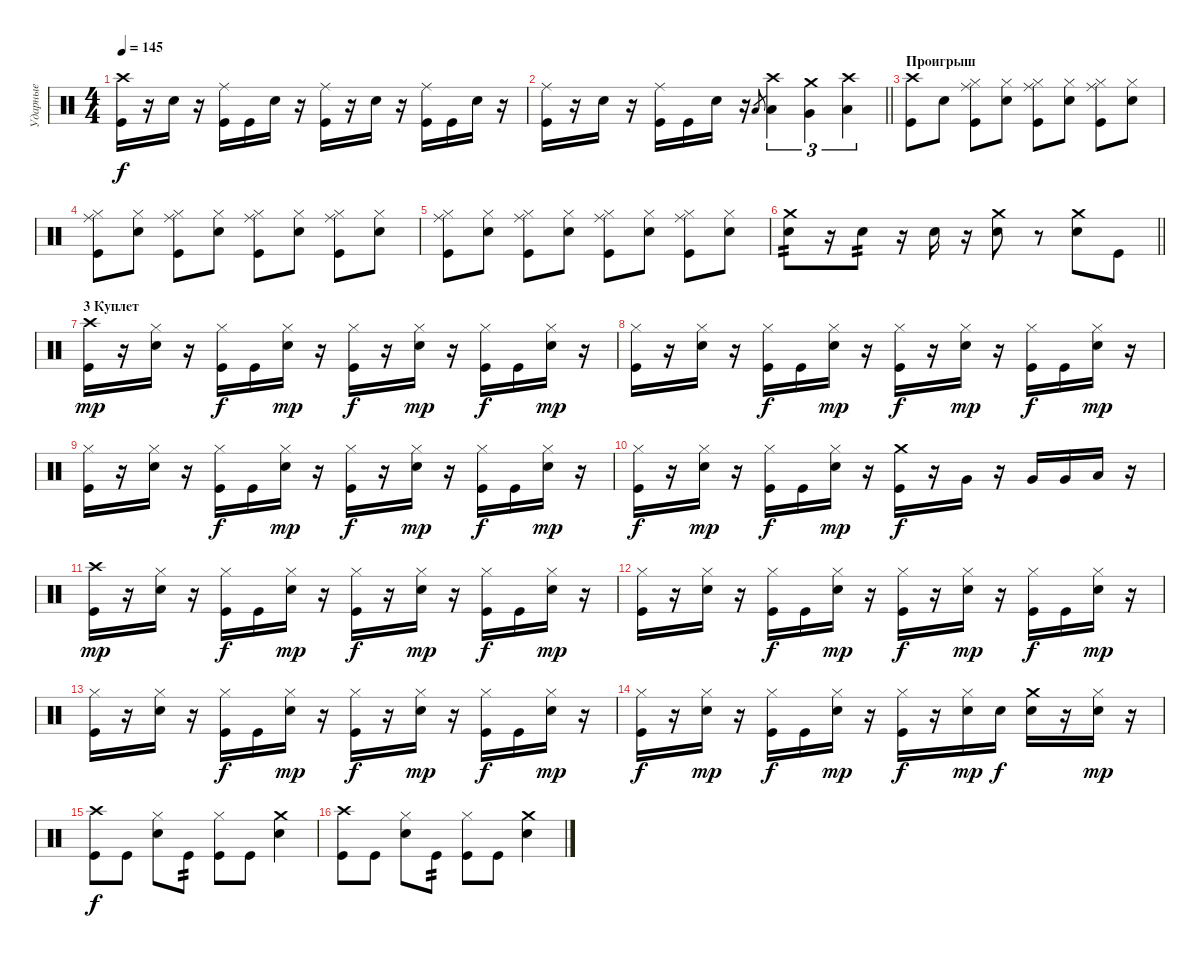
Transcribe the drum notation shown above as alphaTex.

\track ("Ударные" "Ударные") {instrument percussion}
\staff {score}
\articulation defaults
\ts (4 4)
\tempo 145
\clef neutral
\ks c
("Crash high (hit)" "Kick (hit)").16{dy f} r.16 "Snare (hit) 2".16 r.16 ("Ride (middle)" "Kick (hit)").16 "Kick (hit)".16 "Snare (hit) 2".16 r.16 ("Ride (middle)" "Kick (hit)").16 r.16 "Snare (hit) 2".16 r.16 ("Ride (middle)" "Kick (hit)").16 "Kick (hit)".16 "Snare (hit) 2".16 r.16 |
\barLineRight lightlight
("Ride (middle)" "Kick (hit)").16 r.16 "Snare (hit) 2".16 r.16 ("Ride (middle)" "Kick (hit)").16 "Kick (hit)".16 "Snare (hit) 2".16 r.16 "Low Tom (hit)".8{gr} ("Crash high (hit)" "Low Tom (hit)").4{tu (3 2)} ("Crash medium (hit)" "Very Low Tom (hit)").4{tu (3 2)} ("Crash high (hit)" "Low Floor Tom (hit)").4{tu (3 2)} |
\section ("" "Проигрыш")
("Crash high (hit)" "Kick (hit)").8 "Snare (hit) 2".8 ("Hi-Hat (closed)" "Ride (middle)" "Kick (hit)").8 ("Hi-Hat (closed)" "Snare (hit) 2").8 ("Hi-Hat (closed)" "Ride (middle)" "Kick (hit)").8 ("Hi-Hat (closed)" "Snare (hit) 2").8 ("Hi-Hat (closed)" "Ride (middle)" "Kick (hit)").8 ("Hi-Hat (closed)" "Snare (hit) 2").8 |
("Hi-Hat (closed)" "Ride (middle)" "Kick (hit)").8 ("Hi-Hat (closed)" "Snare (hit) 2").8 ("Hi-Hat (closed)" "Ride (middle)" "Kick (hit)").8 ("Hi-Hat (closed)" "Snare (hit) 2").8 ("Hi-Hat (closed)" "Ride (middle)" "Kick (hit)").8 ("Hi-Hat (closed)" "Snare (hit) 2").8 ("Hi-Hat (closed)" "Ride (middle)" "Kick (hit)").8 ("Hi-Hat (closed)" "Snare (hit) 2").8 |
("Hi-Hat (closed)" "Ride (middle)" "Kick (hit)").8 ("Hi-Hat (closed)" "Snare (hit) 2").8 ("Hi-Hat (closed)" "Ride (middle)" "Kick (hit)").8 ("Hi-Hat (closed)" "Snare (hit) 2").8 ("Hi-Hat (closed)" "Ride (middle)" "Kick (hit)").8 ("Hi-Hat (closed)" "Snare (hit) 2").8 ("Hi-Hat (closed)" "Ride (middle)" "Kick (hit)").8 ("Hi-Hat (closed)" "Snare (hit) 2").8 |
\barLineRight lightlight
("Crash medium (hit)" "Snare (hit) 2").8{tp 2} r.16 "Snare (hit) 2".8{tp 2} r.16 "Snare (hit) 2".16 r.16 ("Crash medium (hit)" "Snare (hit) 2").8 r.8 ("Crash medium (hit)" "Snare (hit) 2").8 "Kick (hit)".8 |
\section ("" "3 Куплет")
("Crash high (hit)" "Kick (hit)").16{dy mp} r.16 ("Hi-Hat (closed)" "Snare (hit) 2").16 r.16 ("Hi-Hat (closed)" "Kick (hit)").16{dy f} "Kick (hit)".16 ("Hi-Hat (closed)" "Snare (hit) 2").16{dy mp} r.16 ("Hi-Hat (closed)" "Kick (hit)").16{dy f} r.16 ("Hi-Hat (closed)" "Snare (hit) 2").16{dy mp} r.16 ("Hi-Hat (closed)" "Kick (hit)").16{dy f} "Kick (hit)".16 ("Hi-Hat (closed)" "Snare (hit) 2").16{dy mp} r.16 |
("Hi-Hat (closed)" "Kick (hit)").16 r.16 ("Hi-Hat (closed)" "Snare (hit) 2").16 r.16 ("Hi-Hat (closed)" "Kick (hit)").16{dy f} "Kick (hit)".16 ("Hi-Hat (closed)" "Snare (hit) 2").16{dy mp} r.16 ("Hi-Hat (closed)" "Kick (hit)").16{dy f} r.16 ("Hi-Hat (closed)" "Snare (hit) 2").16{dy mp} r.16 ("Hi-Hat (closed)" "Kick (hit)").16{dy f} "Kick (hit)".16 ("Hi-Hat (closed)" "Snare (hit) 2").16{dy mp} r.16 |
("Hi-Hat (closed)" "Kick (hit)").16 r.16 ("Hi-Hat (closed)" "Snare (hit) 2").16 r.16 ("Hi-Hat (closed)" "Kick (hit)").16{dy f} "Kick (hit)".16 ("Hi-Hat (closed)" "Snare (hit) 2").16{dy mp} r.16 ("Hi-Hat (closed)" "Kick (hit)").16{dy f} r.16 ("Hi-Hat (closed)" "Snare (hit) 2").16{dy mp} r.16 ("Hi-Hat (closed)" "Kick (hit)").16{dy f} "Kick (hit)".16 ("Hi-Hat (closed)" "Snare (hit) 2").16{dy mp} r.16 |
("Hi-Hat (closed)" "Kick (hit)").16{dy f} r.16 ("Hi-Hat (closed)" "Snare (hit) 2").16{dy mp} r.16 ("Hi-Hat (closed)" "Kick (hit)").16{dy f} "Kick (hit)".16 ("Hi-Hat (closed)" "Snare (hit) 2").16{dy mp} r.16 ("Crash medium (hit)" "Kick (hit)").16{dy f} r.16 "Very Low Tom (hit)".16 r.16 "Very Low Tom (hit)".16 "Very Low Tom (hit)".16 "Low Floor Tom (hit)".16 r.16 |
("Crash high (hit)" "Kick (hit)").16{dy mp} r.16 ("Hi-Hat (closed)" "Snare (hit) 2").16 r.16 ("Hi-Hat (closed)" "Kick (hit)").16{dy f} "Kick (hit)".16 ("Hi-Hat (closed)" "Snare (hit) 2").16{dy mp} r.16 ("Hi-Hat (closed)" "Kick (hit)").16{dy f} r.16 ("Hi-Hat (closed)" "Snare (hit) 2").16{dy mp} r.16 ("Hi-Hat (closed)" "Kick (hit)").16{dy f} "Kick (hit)".16 ("Hi-Hat (closed)" "Snare (hit) 2").16{dy mp} r.16 |
("Hi-Hat (closed)" "Kick (hit)").16 r.16 ("Hi-Hat (closed)" "Snare (hit) 2").16 r.16 ("Hi-Hat (closed)" "Kick (hit)").16{dy f} "Kick (hit)".16 ("Hi-Hat (closed)" "Snare (hit) 2").16{dy mp} r.16 ("Hi-Hat (closed)" "Kick (hit)").16{dy f} r.16 ("Hi-Hat (closed)" "Snare (hit) 2").16{dy mp} r.16 ("Hi-Hat (closed)" "Kick (hit)").16{dy f} "Kick (hit)".16 ("Hi-Hat (closed)" "Snare (hit) 2").16{dy mp} r.16 |
("Hi-Hat (closed)" "Kick (hit)").16 r.16 ("Hi-Hat (closed)" "Snare (hit) 2").16 r.16 ("Hi-Hat (closed)" "Kick (hit)").16{dy f} "Kick (hit)".16 ("Hi-Hat (closed)" "Snare (hit) 2").16{dy mp} r.16 ("Hi-Hat (closed)" "Kick (hit)").16{dy f} r.16 ("Hi-Hat (closed)" "Snare (hit) 2").16{dy mp} r.16 ("Hi-Hat (closed)" "Kick (hit)").16{dy f} "Kick (hit)".16 ("Hi-Hat (closed)" "Snare (hit) 2").16{dy mp} r.16 |
("Hi-Hat (closed)" "Kick (hit)").16{dy f} r.16 ("Hi-Hat (closed)" "Snare (hit) 2").16{dy mp} r.16 ("Hi-Hat (closed)" "Kick (hit)").16{dy f} "Kick (hit)".16 ("Hi-Hat (closed)" "Snare (hit) 2").16{dy mp} r.16 ("Hi-Hat (closed)" "Kick (hit)").16{dy f} r.16 ("Hi-Hat (closed)" "Snare (hit) 2").16{dy mp} "Snare (hit) 2".16{dy f} ("Crash medium (hit)" "Snare (hit) 2").16 r.16 ("Hi-Hat (closed)" "Snare (hit) 2").16{dy mp} r.16 |
("Crash high (hit)" "Kick (hit)").8{dy f} "Kick (hit)".8 ("Hi-Hat (closed)" "Snare (hit) 2").8 "Kick (hit)".8{tp 2} ("Hi-Hat (closed)" "Kick (hit)").8 "Kick (hit)".8 ("Crash medium (hit)" "Snare (hit) 2").4 |
("Crash high (hit)" "Kick (hit)").8 "Kick (hit)".8 ("Hi-Hat (closed)" "Snare (hit) 2").8 "Kick (hit)".8{tp 2} ("Hi-Hat (closed)" "Kick (hit)").8 "Kick (hit)".8 ("Crash medium (hit)" "Snare (hit) 2").4
